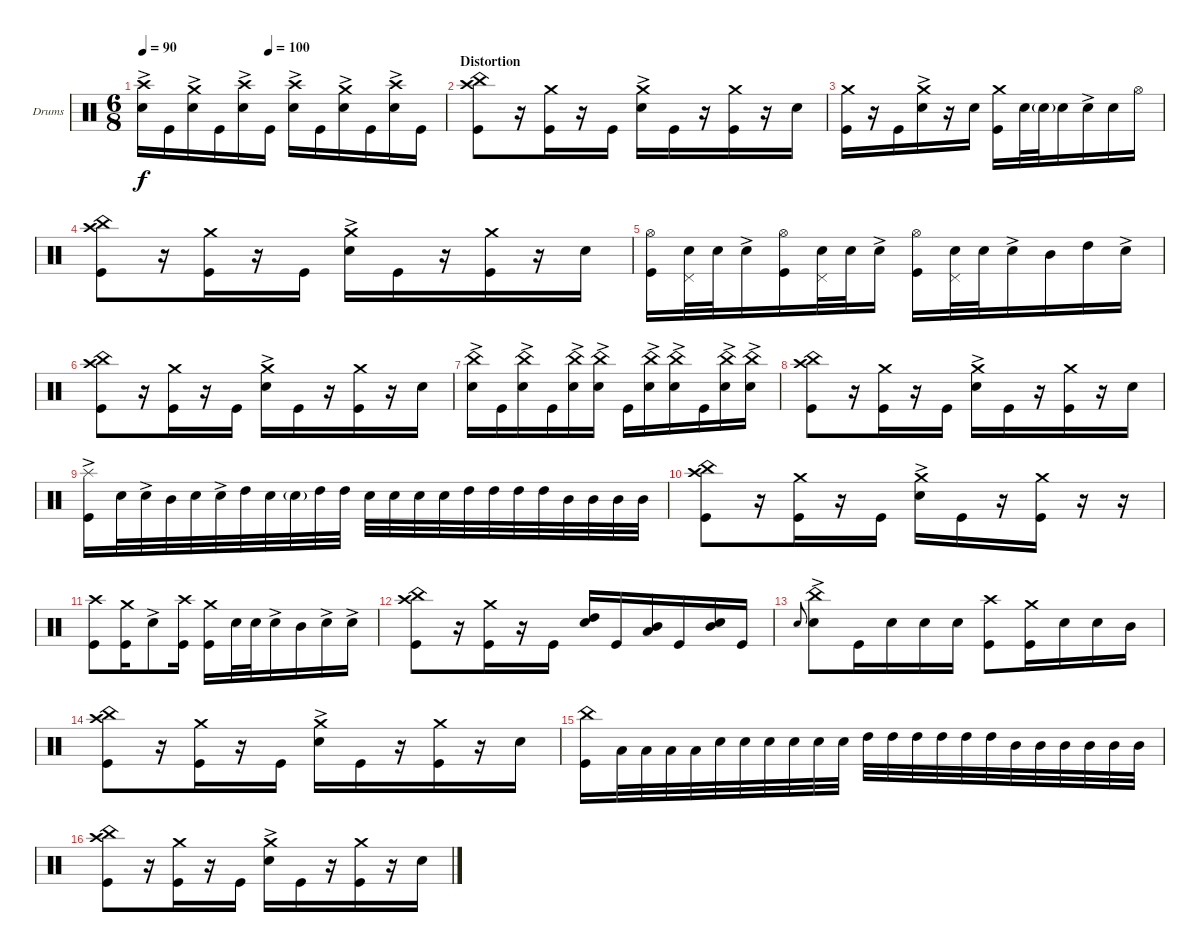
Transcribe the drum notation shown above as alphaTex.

\bracketExtendMode groupsimilarinstruments
\firstSystemTrackNameOrientation horizontal
\otherSystemsTrackNameOrientation horizontal
\track ("Drumkit" "Drums") {instrument percussion}
\staff {score}
\articulation defaults
\ts (6 8)
\tempo 90
\tempo (100 0.416667)
\clef neutral
\ks c
("Snare (hit) 2"{ac} "Crash high (hit)").16{dy f} "Kick (hit)".16 ("Snare (hit) 2"{ac} "Crash medium (hit)").16 "Kick (hit)".16 ("Snare (hit) 2"{ac} "Crash high (hit)").16 "Kick (hit)".16 ("Snare (hit) 2"{ac} "Crash high (hit)").16 "Kick (hit)".16 ("Snare (hit) 2"{ac} "Crash medium (hit)").16 "Kick (hit)".16 ("Snare (hit) 2"{ac} "Crash high (hit)").16 "Kick (hit)".16 |
\section ("" "Distortion")
("Kick (hit)" "Crash high (hit)" "China (hit)").8 r.16 ("Kick (hit)" "Crash medium (hit)").16 r.16 "Kick (hit)".16 ("Snare (hit) 2"{ac} "Crash medium (hit)").16 "Kick (hit)".16 r.16 ("Kick (hit)" "Crash medium (hit)").16 r.16 "Snare (hit) 2".16 |
("Kick (hit)" "Crash medium (hit)").16 r.16 "Kick (hit)".16 ("Snare (hit) 2"{ac} "Crash medium (hit)").16 r.16 "Snare (hit) 2".16 ("Kick (hit)" "Crash medium (hit)").16 "Snare (hit) 2".32 "Snare (hit) 2"{g}.32 "Snare (hit) 2".16 "Snare (hit) 2"{ac}.16 "Snare (hit) 2".16 "Hi-Hat (open)".16 |
("Kick (hit)" "Crash high (hit)" "China (hit)").8 r.16 ("Kick (hit)" "Crash medium (hit)").16 r.16 "Kick (hit)".16 ("Snare (hit) 2"{ac} "Crash medium (hit)").16 "Kick (hit)".16 r.16 ("Kick (hit)" "Crash medium (hit)").16 r.16 "Snare (hit) 2".16 |
("Kick (hit)" "Hi-Hat (open)").16 ("Pedal Hi-Hat (hit)" "Snare (hit) 2").32 "Snare (hit) 2".32 "Snare (hit) 2"{ac}.16 ("Kick (hit)" "Hi-Hat (open)").16 ("Pedal Hi-Hat (hit)" "Snare (hit) 2").32 "Snare (hit) 2".32 "Snare (hit) 2"{ac}.16 ("Kick (hit)" "Hi-Hat (open)").16 ("Pedal Hi-Hat (hit)" "Snare (hit) 2").32 "Snare (hit) 2".32 "Snare (hit) 2"{ac}.16 "Mid Tom (hit)".16 "High Tom (hit)".16 "Snare (hit) 2"{ac}.16 |
("Kick (hit)" "Crash high (hit)" "China (hit)").8 r.16 ("Kick (hit)" "Crash medium (hit)").16 r.16 "Kick (hit)".16 ("Snare (hit) 2"{ac} "Crash medium (hit)").16 "Kick (hit)".16 r.16 ("Kick (hit)" "Crash medium (hit)").16 r.16 "Snare (hit) 2".16 |
("Snare (hit) 2"{ac} "China (hit)").16 "Kick (hit)".16 ("Snare (hit) 2"{ac} "China (hit)").16 "Kick (hit)".16 ("Snare (hit) 2"{ac} "China (hit)").16 ("Snare (hit) 2"{ac} "China (hit)").16 "Kick (hit)".16 ("Snare (hit) 2"{ac} "China (hit)").16 ("Snare (hit) 2"{ac} "China (hit)").16 "Kick (hit)".16 ("Snare (hit) 2"{ac} "China (hit)").16 ("Snare (hit) 2"{ac} "China (hit)").16 |
("Kick (hit)" "Crash high (hit)" "China (hit)").8 r.16 ("Kick (hit)" "Crash medium (hit)").16 r.16 "Kick (hit)".16 ("Snare (hit) 2"{ac} "Crash medium (hit)").16 "Kick (hit)".16 r.16 ("Kick (hit)" "Crash medium (hit)").16 r.16 "Snare (hit) 2".16 |
("Kick (hit)" "Splash (hit)"{ac}).16 "Snare (hit) 2".32 "Snare (hit) 2"{ac}.32 "Mid Tom (hit)".32 "Snare (hit) 2".32 "Snare (hit) 2"{ac}.32 "High Tom (hit)".32 "Snare (hit) 2".32 "Snare (hit) 2"{g}.32 "High Tom (hit)".32 "High Tom (hit)".32 "Snare (hit) 2".32 "Snare (hit) 2".32 "Snare (hit) 2".32 "Snare (hit) 2".32 "High Tom (hit)".32 "High Tom (hit)".32 "High Tom (hit)".32 "High Tom (hit)".32 "Mid Tom (hit)".32 "Mid Tom (hit)".32 "Mid Tom (hit)".32 "Mid Tom (hit)".32 |
("Kick (hit)" "Crash high (hit)" "China (hit)").8 r.16 ("Kick (hit)" "Crash medium (hit)").16 r.16 "Kick (hit)".16 ("Snare (hit) 2"{ac} "Crash medium (hit)").16 "Kick (hit)".16 r.16 ("Kick (hit)" "Crash medium (hit)").16 r.16 r.16 |
("Kick (hit)" "Crash high (hit)").8 ("Kick (hit)" "Crash medium (hit)").16 "Snare (hit) 2"{ac}.8 ("Kick (hit)" "Crash high (hit)").16 ("Kick (hit)" "Crash medium (hit)").16 "Snare (hit) 2".32 "Snare (hit) 2".32 "Snare (hit) 2"{ac}.16 "Mid Tom (hit)".16 "Snare (hit) 2"{ac}.16 "Snare (hit) 2"{ac}.16 |
("Kick (hit)" "Crash high (hit)" "China (hit)").8 r.16 ("Kick (hit)" "Crash medium (hit)").16 r.16 "Kick (hit)".16 ("Snare (hit) 2" "High Tom (hit)").16 "Kick (hit)".16 ("Low Tom (hit)" "Mid Tom (hit)").16 "Kick (hit)".16 ("Snare (hit) 2" "Mid Tom (hit)").16 "Kick (hit)".16 |
"Snare (hit) 2".8{gr onbeat} ("Snare (hit) 2"{ac} "China (hit)").8 "Kick (hit)".16 "Snare (hit) 2".16 "Snare (hit) 2".16 "Snare (hit) 2".16 ("Kick (hit)" "Crash high (hit)").8 ("Kick (hit)" "Crash medium (hit)").16 "Snare (hit) 2".16 "Snare (hit) 2".16 "Mid Tom (hit)".16 |
("Kick (hit)" "Crash high (hit)" "China (hit)").8 r.16 ("Kick (hit)" "Crash medium (hit)").16 r.16 "Kick (hit)".16 ("Snare (hit) 2"{ac} "Crash medium (hit)").16 "Kick (hit)".16 r.16 ("Kick (hit)" "Crash medium (hit)").16 r.16 "Snare (hit) 2".16 |
("Kick (hit)" "China (hit)").16 "Low Tom (hit)".32 "Low Tom (hit)".32 "Low Tom (hit)".32 "Low Tom (hit)".32 "Snare (hit) 2".32 "Snare (hit) 2".32 "Snare (hit) 2".32 "Snare (hit) 2".32 "Snare (hit) 2".32 "Snare (hit) 2".32 "High Tom (hit)".32 "High Tom (hit)".32 "High Tom (hit)".32 "High Tom (hit)".32 "High Tom (hit)".32 "High Tom (hit)".32 "Mid Tom (hit)".32 "Mid Tom (hit)".32 "Mid Tom (hit)".32 "Mid Tom (hit)".32 "Mid Tom (hit)".32 "Mid Tom (hit)".32 |
("Kick (hit)" "Crash high (hit)" "China (hit)").8 r.16 ("Kick (hit)" "Crash medium (hit)").16 r.16 "Kick (hit)".16 ("Snare (hit) 2"{ac} "Crash medium (hit)").16 "Kick (hit)".16 r.16 ("Kick (hit)" "Crash medium (hit)").16 r.16 "Snare (hit) 2".16
